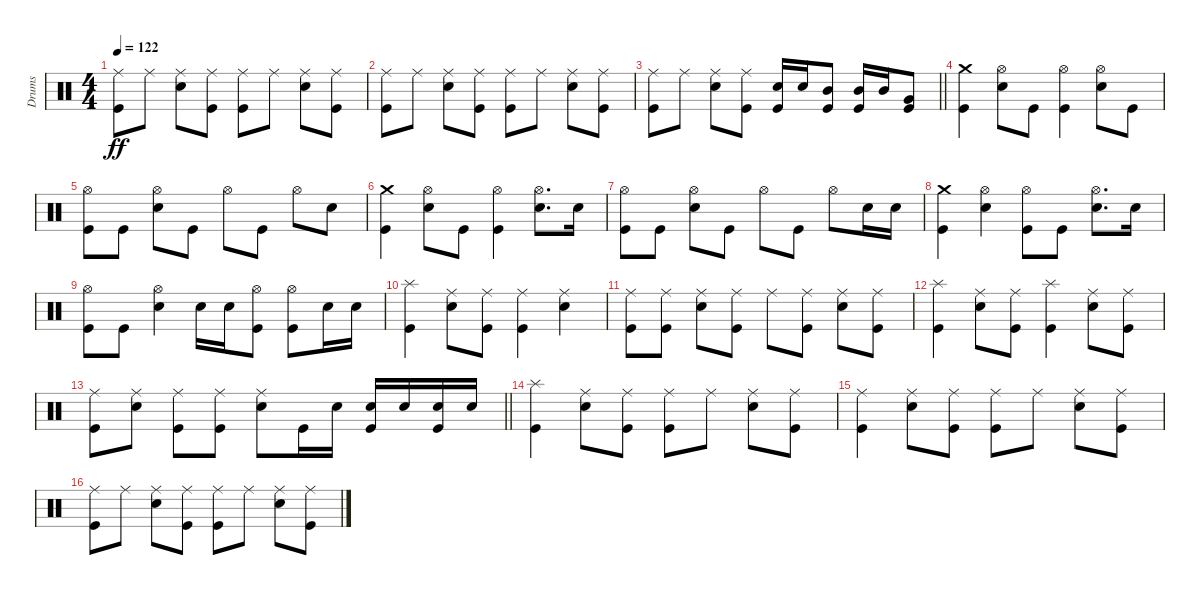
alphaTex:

\track ("Drums" "Drums") {instrument percussion}
\staff {score}
\articulation defaults
\ts (4 4)
\tempo 122
\clef neutral
\ks c
("Ride (middle)" "Kick (hit)").8{dy ff} "Ride (middle)".8 ("Ride (middle)" "Snare (hit) 2").8 ("Ride (middle)" "Kick (hit)").8 ("Ride (middle)" "Kick (hit)").8 "Ride (middle)".8 ("Ride (middle)" "Snare (hit) 2").8 ("Ride (middle)" "Kick (hit)").8 |
("Ride (middle)" "Kick (hit)").8 "Ride (middle)".8 ("Ride (middle)" "Snare (hit) 2").8 ("Ride (middle)" "Kick (hit)").8 ("Ride (middle)" "Kick (hit)").8 "Ride (middle)".8 ("Ride (middle)" "Snare (hit) 2").8 ("Ride (middle)" "Kick (hit)").8 |
\barLineRight lightlight
("Ride (middle)" "Kick (hit)").8 "Ride (middle)".8 ("Ride (middle)" "Snare (hit) 2").8 ("Ride (middle)" "Kick (hit)").8 ("Snare (hit) 2" "Kick (hit)").16 "Snare (hit) 2".16 ("Mid Tom (hit)" "Kick (hit)").8 ("Mid Tom (hit)" "Kick (hit)").16 "Mid Tom (hit)".16 ("Very Low Tom (hit)" "Kick (hit)").8 |
("Crash medium (hit)" "Kick (hit)").4 ("Hi-Hat (open)" "Snare (hit) 2").8 "Kick (hit)".8 ("Hi-Hat (open)" "Kick (hit)").4 ("Hi-Hat (open)" "Snare (hit) 2").8 "Kick (hit)".8 |
("Hi-Hat (open)" "Kick (hit)").8 "Kick (hit)".8 ("Hi-Hat (open)" "Snare (hit) 2").8 "Kick (hit)".8 "Hi-Hat (open)".8 "Kick (hit)".8 "Hi-Hat (open)".8 "Snare (hit) 2".8 |
("Crash medium (hit)" "Kick (hit)").4 ("Hi-Hat (open)" "Snare (hit) 2").8 "Kick (hit)".8 ("Hi-Hat (open)" "Kick (hit)").4 ("Hi-Hat (open)" "Snare (hit) 2").8{d} "Snare (hit) 2".16 |
("Hi-Hat (open)" "Kick (hit)").8 "Kick (hit)".8 ("Hi-Hat (open)" "Snare (hit) 2").8 "Kick (hit)".8 "Hi-Hat (open)".8 "Kick (hit)".8 "Hi-Hat (open)".8 "Snare (hit) 2".16 "Snare (hit) 2".16 |
("Crash medium (hit)" "Kick (hit)").4 ("Hi-Hat (open)" "Snare (hit) 2").4 ("Hi-Hat (open)" "Kick (hit)").8 "Kick (hit)".8 ("Hi-Hat (open)" "Snare (hit) 2").8{d} "Snare (hit) 2".16 |
("Hi-Hat (open)" "Kick (hit)").8 "Kick (hit)".8 ("Hi-Hat (open)" "Snare (hit) 2").4 "Snare (hit) 2".16 "Snare (hit) 2".16 ("Hi-Hat (open)" "Kick (hit)").8 ("Hi-Hat (open)" "Kick (hit)").8 "Snare (hit) 2".16 "Snare (hit) 2".16 |
("Splash (hit)" "Kick (hit)").4 ("Ride (middle)" "Snare (hit) 2").8 ("Ride (middle)" "Kick (hit)").8 ("Ride (middle)" "Kick (hit)").4 ("Ride (middle)" "Snare (hit) 2").4 |
("Ride (middle)" "Kick (hit)").8 ("Ride (middle)" "Kick (hit)").8 ("Ride (middle)" "Snare (hit) 2").8 ("Ride (middle)" "Kick (hit)").8 "Ride (middle)".8 ("Ride (middle)" "Kick (hit)").8 ("Ride (middle)" "Snare (hit) 2").8 ("Ride (middle)" "Kick (hit)").8 |
("Splash (hit)" "Kick (hit)").4 ("Ride (middle)" "Snare (hit) 2").8 ("Ride (middle)" "Kick (hit)").8 ("Splash (hit)" "Kick (hit)").4 ("Ride (middle)" "Snare (hit) 2").8 ("Ride (middle)" "Kick (hit)").8 |
\barLineRight lightlight
("Ride (middle)" "Kick (hit)").8 ("Ride (middle)" "Snare (hit) 2").8 ("Ride (middle)" "Kick (hit)").8 ("Ride (middle)" "Kick (hit)").8 ("Ride (middle)" "Snare (hit) 2").8 "Kick (hit)".16 "Snare (hit) 2".16 ("Snare (hit) 2" "Kick (hit)").16 "Snare (hit) 2".16 ("Snare (hit) 2" "Kick (hit)").16 "Snare (hit) 2".16 |
("Splash (hit)" "Kick (hit)").4 ("Ride (middle)" "Snare (hit) 2").8 ("Ride (middle)" "Kick (hit)").8 ("Ride (middle)" "Kick (hit)").8 "Ride (middle)".8 ("Ride (middle)" "Snare (hit) 2").8 ("Ride (middle)" "Kick (hit)").8 |
("Ride (middle)" "Kick (hit)").4 ("Ride (middle)" "Snare (hit) 2").8 ("Ride (middle)" "Kick (hit)").8 ("Ride (middle)" "Kick (hit)").8 "Ride (middle)".8 ("Ride (middle)" "Snare (hit) 2").8 ("Ride (middle)" "Kick (hit)").8 |
("Ride (middle)" "Kick (hit)").8 "Ride (middle)".8 ("Ride (middle)" "Snare (hit) 2").8 ("Ride (middle)" "Kick (hit)").8 ("Ride (middle)" "Kick (hit)").8 "Ride (middle)".8 ("Ride (middle)" "Snare (hit) 2").8 ("Ride (middle)" "Kick (hit)").8
